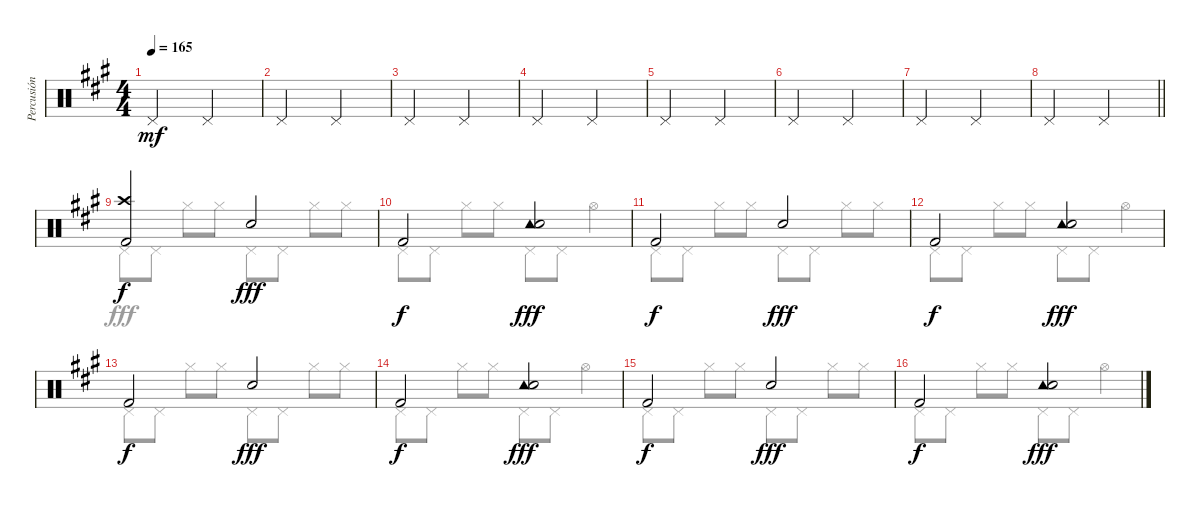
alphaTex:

\track ("Percusión" "Percusión") {instrument percussion}
\staff {score}
\articulation defaults
\voice
\ts (4 4)
\tempo 165
\clef neutral
\ks a "Pedal Hi-Hat (hit)".2{dy mf} "Pedal Hi-Hat (hit)".2
|
"Pedal Hi-Hat (hit)".2 "Pedal Hi-Hat (hit)".2 |
"Pedal Hi-Hat (hit)".2 "Pedal Hi-Hat (hit)".2 |
"Pedal Hi-Hat (hit)".2 "Pedal Hi-Hat (hit)".2 |
"Pedal Hi-Hat (hit)".2 "Pedal Hi-Hat (hit)".2 |
"Pedal Hi-Hat (hit)".2 "Pedal Hi-Hat (hit)".2 |
"Pedal Hi-Hat (hit)".2 "Pedal Hi-Hat (hit)".2 |
\barLineRight lightlight "Pedal Hi-Hat (hit)".2 "Pedal Hi-Hat (hit)".2
|
("Crash high (hit)" "Kick (hit) 2").2{dy f} "Snare (hit) 2".2{dy fff} |
"Kick (hit) 2".2{dy f} ("Tambourine (hit)" "Snare (hit) 2").2{dy fff} |
"Kick (hit) 2".2{dy f} "Snare (hit) 2".2{dy fff} |
"Kick (hit) 2".2{dy f} ("Tambourine (hit)" "Snare (hit) 2").2{dy fff} |
"Kick (hit) 2".2{dy f} "Snare (hit) 2".2{dy fff} |
"Kick (hit) 2".2{dy f} ("Tambourine (hit)" "Snare (hit) 2").2{dy fff} |
"Kick (hit) 2".2{dy f} "Snare (hit) 2".2{dy fff} |
"Kick (hit) 2".2{dy f} ("Tambourine (hit)" "Snare (hit) 2").2{dy fff}
\voice
\clef neutral
\ottava regular
\simile none
\ks a
|
|
|
|
|
|
|
\barLineRight lightlight
|
"Pedal Hi-Hat (hit)".8 "Pedal Hi-Hat (hit)".8 "Hi-Hat (closed)".8 "Hi-Hat (closed)".8 "Pedal Hi-Hat (hit)".8 "Pedal Hi-Hat (hit)".8 "Hi-Hat (closed)".8 "Hi-Hat (closed)".8 |
"Pedal Hi-Hat (hit)".8 "Pedal Hi-Hat (hit)".8 "Hi-Hat (closed)".8 "Hi-Hat (closed)".8 "Pedal Hi-Hat (hit)".8 "Pedal Hi-Hat (hit)".8 "Hi-Hat (open)".4 |
"Pedal Hi-Hat (hit)".8 "Pedal Hi-Hat (hit)".8 "Hi-Hat (closed)".8 "Hi-Hat (closed)".8 "Pedal Hi-Hat (hit)".8 "Pedal Hi-Hat (hit)".8 "Hi-Hat (closed)".8 "Hi-Hat (closed)".8 |
"Pedal Hi-Hat (hit)".8 "Pedal Hi-Hat (hit)".8 "Hi-Hat (closed)".8 "Hi-Hat (closed)".8 "Pedal Hi-Hat (hit)".8 "Pedal Hi-Hat (hit)".8 "Hi-Hat (open)".4 |
"Pedal Hi-Hat (hit)".8 "Pedal Hi-Hat (hit)".8 "Hi-Hat (closed)".8 "Hi-Hat (closed)".8 "Pedal Hi-Hat (hit)".8 "Pedal Hi-Hat (hit)".8 "Hi-Hat (closed)".8 "Hi-Hat (closed)".8 |
"Pedal Hi-Hat (hit)".8 "Pedal Hi-Hat (hit)".8 "Hi-Hat (closed)".8 "Hi-Hat (closed)".8 "Pedal Hi-Hat (hit)".8 "Pedal Hi-Hat (hit)".8 "Hi-Hat (open)".4 |
"Pedal Hi-Hat (hit)".8 "Pedal Hi-Hat (hit)".8 "Hi-Hat (closed)".8 "Hi-Hat (closed)".8 "Pedal Hi-Hat (hit)".8 "Pedal Hi-Hat (hit)".8 "Hi-Hat (closed)".8 "Hi-Hat (closed)".8 |
"Pedal Hi-Hat (hit)".8 "Pedal Hi-Hat (hit)".8 "Hi-Hat (closed)".8 "Hi-Hat (closed)".8 "Pedal Hi-Hat (hit)".8 "Pedal Hi-Hat (hit)".8 "Hi-Hat (open)".4
